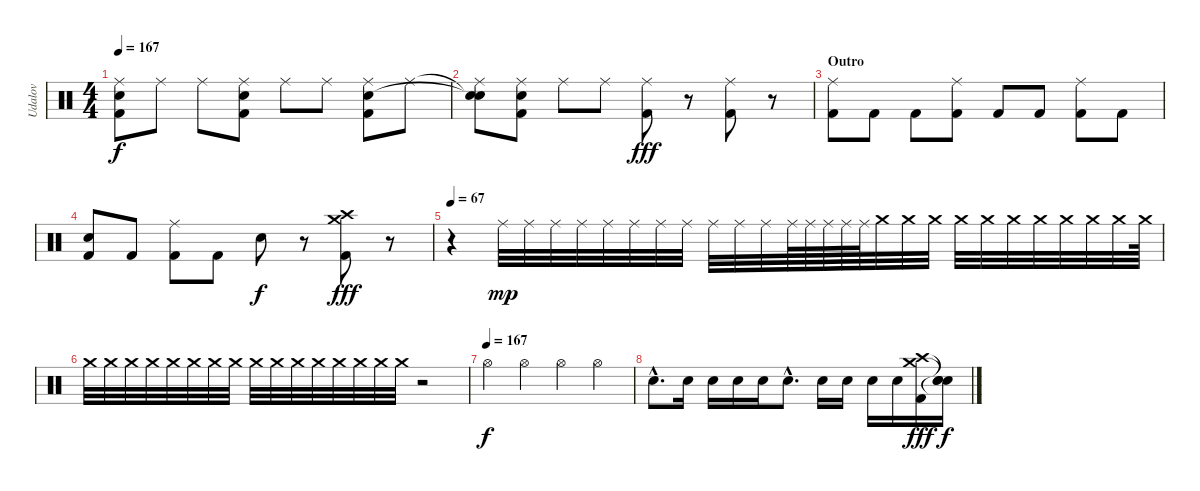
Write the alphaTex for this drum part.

\track ("Udalov" "Udalov") {instrument percussion}
\staff {score}
\articulation defaults
\ts (4 4)
\tempo 167
\clef neutral
\ks c
("Kick (hit) 2" "Electric Snare (hit)" "Ride (middle)").8{dy f} "Ride (middle)".8 "Ride (middle)".8 ("Kick (hit) 2" "Electric Snare (hit)" "Ride (middle)").8 "Ride (middle)".8 "Ride (middle)".8 ("Kick (hit) 2" "Electric Snare (hit)" "Ride (middle)").8 "Ride (middle)".8 |
("Snare (hit)"{t} "Snare (hit)"{t} "Ride (middle)").8 ("Electric Snare (hit)" "Kick (hit) 2" "Ride (middle)").8 "Ride (middle)".8 "Ride (middle)".8 ("Ride (middle)" "Kick (hit) 2").8{dy fff} r.8 ("Ride (middle)" "Kick (hit) 2").8 r.8 |
\section ("" "Outro")
("Kick (hit) 2" "Ride (middle)").8 "Kick (hit) 2".8 "Kick (hit) 2".8 ("Kick (hit) 2" "Ride (middle)").8 "Kick (hit) 2".8 "Kick (hit) 2".8 ("Kick (hit) 2" "Ride (middle)").8 "Kick (hit) 2".8 |
("Kick (hit) 2" "Electric Snare (hit)").8 "Kick (hit) 2".8 ("Kick (hit) 2" "Ride (middle)").8 "Kick (hit) 2".8 "Electric Snare (hit)".8{dy f} r.8 ("Kick (hit) 2" "Crash high (hit)" "Crash medium (hit)").8{dy fff} r.8 |
\tempo 67
r.4 "Ride (middle)".32{dy mp} "Ride (middle)".32 "Ride (middle)".32 "Ride (middle)".32 "Ride (middle)".32 "Ride (middle)".32 "Ride (middle)".32 "Ride (middle)".32 "Ride (middle)".32 "Ride (middle)".32 "Ride (middle)".32 "Ride (middle)".64 "Ride (middle)".64 "Ride (middle)".64 "Ride (middle)".64 "Ride (middle)".64 "Crash medium (hit)".32 "Crash medium (hit)".32 "Crash medium (hit)".32 "Crash medium (hit)".32 "Crash medium (hit)".32 "Crash medium (hit)".32 "Crash medium (hit)".32 "Crash medium (hit)".32 "Crash medium (hit)".32 "Crash medium (hit)".32 "Crash medium (hit)".64 |
"Crash medium (hit)".32 "Crash medium (hit)".32 "Crash medium (hit)".32 "Crash medium (hit)".32 "Crash medium (hit)".32 "Crash medium (hit)".32 "Crash medium (hit)".32 "Crash medium (hit)".32 "Crash medium (hit)".32 "Crash medium (hit)".32 "Crash medium (hit)".32 "Crash medium (hit)".32 "Crash medium (hit)".32 "Crash medium (hit)".32 "Crash medium (hit)".32 "Crash medium (hit)".32 r.2 |
\tempo (167)
"Hi-Hat (open)".4{dy f} "Hi-Hat (open)".4 "Hi-Hat (open)".4 "Hi-Hat (open)".4 |
"Snare (hit) 2"{hac}.8{d} "Electric Snare (hit)".16 "Electric Snare (hit)".16 "Electric Snare (hit)".16 "Electric Snare (hit)".16 "Electric Snare (hit)"{hac}.8{d} "Electric Snare (hit)".16 "Electric Snare (hit)".16 "Electric Snare (hit)".16 "Electric Snare (hit)".16 ("Kick (hit) 2" "Crash medium (hit)" "Crash high (hit)").16{dy fff} ("Snare (hit)"{t} "Snare (hit)"{t} "Snare (hit)"{t}).16{dy f}
